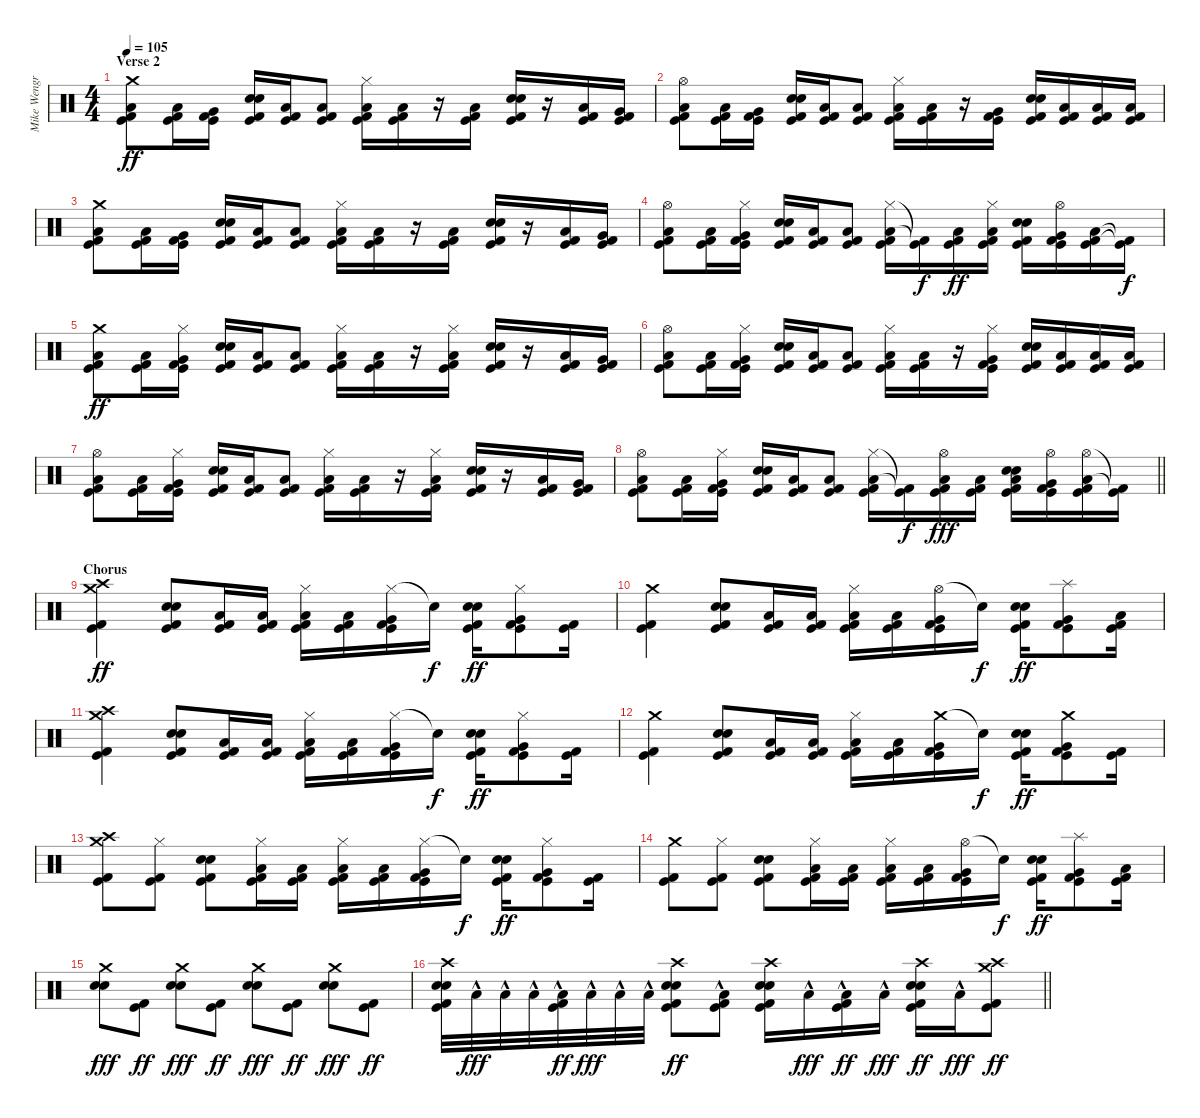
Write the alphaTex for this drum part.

\track ("Mike Wengren (Drums)" "Mike Wengr") {instrument percussion}
\staff {score}
\articulation defaults
\ts (4 4)
\section ("" "Verse 2")
\tempo 105
\clef neutral
\ks c
("Crash medium (hit)" "Low Floor Tom (hit)" "Kick (hit) 2" "Kick (hit)").8{dy ff} ("Low Floor Tom (hit)" "Kick (hit) 2" "Kick (hit)").16 ("Very Low Tom (hit)" "Kick (hit) 2" "Kick (hit)").16 ("Electric Snare (hit)" "Snare (hit) 2" "Kick (hit) 2" "Kick (hit)").16 ("Low Floor Tom (hit)" "Kick (hit) 2" "Kick (hit)").16 ("Low Floor Tom (hit)" "Kick (hit) 2" "Kick (hit)").8 ("Hi-Hat (closed)" "Low Floor Tom (hit)" "Kick (hit) 2" "Kick (hit)").16 ("Low Floor Tom (hit)" "Kick (hit) 2" "Kick (hit)").16 r.16 ("Low Floor Tom (hit)" "Kick (hit) 2" "Kick (hit)").16 ("Electric Snare (hit)" "Snare (hit) 2" "Kick (hit) 2" "Kick (hit)").16 r.16 ("Low Floor Tom (hit)" "Kick (hit) 2" "Kick (hit)").16 ("Very Low Tom (hit)" "Kick (hit) 2" "Kick (hit)").16 |
("Hi-Hat (open)" "Low Floor Tom (hit)" "Kick (hit) 2" "Kick (hit)").8 ("Low Floor Tom (hit)" "Kick (hit) 2" "Kick (hit)").16 ("Very Low Tom (hit)" "Kick (hit) 2" "Kick (hit)").16 ("Electric Snare (hit)" "Snare (hit) 2" "Kick (hit) 2" "Kick (hit)").16 ("Low Floor Tom (hit)" "Kick (hit) 2" "Kick (hit)").16 ("Low Floor Tom (hit)" "Kick (hit) 2" "Kick (hit)").8 ("Hi-Hat (closed)" "Low Floor Tom (hit)" "Kick (hit) 2" "Kick (hit)").16 ("Low Floor Tom (hit)" "Kick (hit) 2" "Kick (hit)").16 r.16 ("Very Low Tom (hit)" "Kick (hit) 2" "Kick (hit)").16 ("Electric Snare (hit)" "Snare (hit) 2" "Kick (hit) 2" "Kick (hit)").16 ("Low Floor Tom (hit)" "Kick (hit) 2" "Kick (hit)").16 ("Low Floor Tom (hit)" "Kick (hit) 2" "Kick (hit)").16 ("Low Floor Tom (hit)" "Kick (hit) 2" "Kick (hit)").16 |
("Crash medium (hit)" "Low Floor Tom (hit)" "Kick (hit) 2" "Kick (hit)").8 ("Low Floor Tom (hit)" "Kick (hit) 2" "Kick (hit)").16 ("Very Low Tom (hit)" "Kick (hit) 2" "Kick (hit)").16 ("Electric Snare (hit)" "Snare (hit) 2" "Kick (hit) 2" "Kick (hit)").16 ("Low Floor Tom (hit)" "Kick (hit) 2" "Kick (hit)").16 ("Low Floor Tom (hit)" "Kick (hit) 2" "Kick (hit)").8 ("Hi-Hat (closed)" "Low Floor Tom (hit)" "Kick (hit) 2" "Kick (hit)").16 ("Low Floor Tom (hit)" "Kick (hit) 2" "Kick (hit)").16 r.16 ("Low Floor Tom (hit)" "Kick (hit) 2" "Kick (hit)").16 ("Electric Snare (hit)" "Snare (hit) 2" "Kick (hit) 2" "Kick (hit)").16 r.16 ("Low Floor Tom (hit)" "Kick (hit) 2" "Kick (hit)").16 ("Very Low Tom (hit)" "Kick (hit) 2" "Kick (hit)").16 |
("Hi-Hat (open)" "Low Floor Tom (hit)" "Kick (hit) 2" "Kick (hit)").8 ("Low Floor Tom (hit)" "Kick (hit) 2" "Kick (hit)").16 ("Hi-Hat (closed)" "Very Low Tom (hit)" "Kick (hit) 2" "Kick (hit)").16 ("Electric Snare (hit)" "Snare (hit) 2" "Kick (hit) 2" "Kick (hit)").16 ("Low Floor Tom (hit)" "Kick (hit) 2" "Kick (hit)").16 ("Low Floor Tom (hit)" "Kick (hit) 2" "Kick (hit)").8 ("Hi-Hat (closed)" "Low Floor Tom (hit)" "Kick (hit) 2" "Kick (hit)").16 ("Kick (hit) 2"{t} "Kick (hit)"{t}).16{dy f} ("Low Floor Tom (hit)" "Kick (hit) 2" "Kick (hit)").16{dy ff} ("Hi-Hat (closed)" "Low Floor Tom (hit)" "Kick (hit) 2" "Kick (hit)").16 ("Electric Snare (hit)" "Snare (hit) 2" "Kick (hit) 2" "Kick (hit)").16 ("Hi-Hat (open)" "Very Low Tom (hit)" "Kick (hit) 2" "Kick (hit)").16 ("Low Floor Tom (hit)" "Kick (hit) 2" "Kick (hit)").16 ("Kick (hit) 2"{t} "Kick (hit)"{t}).16{dy f} |
("Crash medium (hit)" "Low Floor Tom (hit)" "Kick (hit) 2" "Kick (hit)").8{dy ff} ("Low Floor Tom (hit)" "Kick (hit) 2" "Kick (hit)").16 ("Hi-Hat (closed)" "Very Low Tom (hit)" "Kick (hit) 2" "Kick (hit)").16 ("Electric Snare (hit)" "Snare (hit) 2" "Kick (hit) 2" "Kick (hit)").16 ("Low Floor Tom (hit)" "Kick (hit) 2" "Kick (hit)").16 ("Low Floor Tom (hit)" "Kick (hit) 2" "Kick (hit)").8 ("Hi-Hat (closed)" "Low Floor Tom (hit)" "Kick (hit) 2" "Kick (hit)").16 ("Low Floor Tom (hit)" "Kick (hit) 2" "Kick (hit)").16 r.16 ("Hi-Hat (closed)" "Low Floor Tom (hit)" "Kick (hit) 2" "Kick (hit)").16 ("Electric Snare (hit)" "Snare (hit) 2" "Kick (hit) 2" "Kick (hit)").16 r.16 ("Low Floor Tom (hit)" "Kick (hit) 2" "Kick (hit)").16 ("Very Low Tom (hit)" "Kick (hit) 2" "Kick (hit)").16 |
("Hi-Hat (open)" "Low Floor Tom (hit)" "Kick (hit) 2" "Kick (hit)").8 ("Low Floor Tom (hit)" "Kick (hit) 2" "Kick (hit)").16 ("Hi-Hat (closed)" "Very Low Tom (hit)" "Kick (hit) 2" "Kick (hit)").16 ("Electric Snare (hit)" "Snare (hit) 2" "Kick (hit) 2" "Kick (hit)").16 ("Low Floor Tom (hit)" "Kick (hit) 2" "Kick (hit)").16 ("Low Floor Tom (hit)" "Kick (hit) 2" "Kick (hit)").8 ("Hi-Hat (closed)" "Low Floor Tom (hit)" "Kick (hit) 2" "Kick (hit)").16 ("Low Floor Tom (hit)" "Kick (hit) 2" "Kick (hit)").16 r.16 ("Hi-Hat (closed)" "Very Low Tom (hit)" "Kick (hit) 2" "Kick (hit)").16 ("Electric Snare (hit)" "Snare (hit) 2" "Kick (hit) 2" "Kick (hit)").16 ("Low Floor Tom (hit)" "Kick (hit) 2" "Kick (hit)").16 ("Low Floor Tom (hit)" "Kick (hit) 2" "Kick (hit)").16 ("Low Floor Tom (hit)" "Kick (hit) 2" "Kick (hit)").16 |
("Hi-Hat (open)" "Low Floor Tom (hit)" "Kick (hit) 2" "Kick (hit)").8 ("Low Floor Tom (hit)" "Kick (hit) 2" "Kick (hit)").16 ("Hi-Hat (closed)" "Very Low Tom (hit)" "Kick (hit) 2" "Kick (hit)").16 ("Electric Snare (hit)" "Snare (hit) 2" "Kick (hit) 2" "Kick (hit)").16 ("Low Floor Tom (hit)" "Kick (hit) 2" "Kick (hit)").16 ("Low Floor Tom (hit)" "Kick (hit) 2" "Kick (hit)").8 ("Hi-Hat (closed)" "Low Floor Tom (hit)" "Kick (hit) 2" "Kick (hit)").16 ("Low Floor Tom (hit)" "Kick (hit) 2" "Kick (hit)").16 r.16 ("Hi-Hat (closed)" "Low Floor Tom (hit)" "Kick (hit) 2" "Kick (hit)").16 ("Electric Snare (hit)" "Snare (hit) 2" "Kick (hit) 2" "Kick (hit)").16 r.16 ("Low Floor Tom (hit)" "Kick (hit) 2" "Kick (hit)").16 ("Very Low Tom (hit)" "Kick (hit) 2" "Kick (hit)").16 |
\barLineRight lightlight
("Hi-Hat (open)" "Low Floor Tom (hit)" "Kick (hit) 2" "Kick (hit)").8 ("Low Floor Tom (hit)" "Kick (hit) 2" "Kick (hit)").16 ("Hi-Hat (closed)" "Very Low Tom (hit)" "Kick (hit) 2" "Kick (hit)").16 ("Electric Snare (hit)" "Snare (hit) 2" "Kick (hit) 2" "Kick (hit)").16 ("Low Floor Tom (hit)" "Kick (hit) 2" "Kick (hit)").16 ("Low Floor Tom (hit)" "Kick (hit) 2" "Kick (hit)").8 ("Hi-Hat (closed)" "Low Floor Tom (hit)" "Kick (hit) 2" "Kick (hit)").16 ("Kick (hit) 2"{t} "Kick (hit)"{t}).16{dy f} ("Hi-Hat (open)" "Low Floor Tom (hit)" "Kick (hit) 2" "Kick (hit)").16{dy fff} ("Low Floor Tom (hit)" "Kick (hit) 2" "Kick (hit)").16 ("Low Tom (hit)" "Electric Snare (hit)" "Snare (hit) 2" "Kick (hit) 2" "Kick (hit)").16 ("Hi-Hat (open)" "Very Low Tom (hit)" "Kick (hit) 2" "Kick (hit)").16 ("Hi-Hat (open)" "Low Floor Tom (hit)" "Kick (hit) 2" "Kick (hit)").16 ("Kick (hit) 2"{t} "Kick (hit)"{t}).16 |
\section ("" "Chorus")
("Crash medium (hit)" "Crash high (hit)" "Kick (hit) 2" "Kick (hit)").4{dy ff} ("Electric Snare (hit)" "Snare (hit) 2" "Kick (hit) 2" "Kick (hit)").8 ("Low Floor Tom (hit)" "Kick (hit) 2" "Kick (hit)").16 ("Low Floor Tom (hit)" "Kick (hit) 2" "Kick (hit)").16 ("Hi-Hat (closed)" "Low Floor Tom (hit)" "Kick (hit) 2" "Kick (hit)").16 ("Low Floor Tom (hit)" "Kick (hit) 2" "Kick (hit)").16 ("Hi-Hat (closed)" "Very Low Tom (hit)" "Kick (hit) 2" "Kick (hit)").16 "Snare (hit)"{t}.16{dy f} ("Electric Snare (hit)" "Snare (hit) 2" "Kick (hit) 2" "Kick (hit)").16{dy ff} ("Hi-Hat (closed)" "Very Low Tom (hit)" "Kick (hit) 2" "Kick (hit)").8 ("Kick (hit) 2" "Kick (hit)").16 |
("Crash medium (hit)" "Kick (hit) 2" "Kick (hit)").4 ("Electric Snare (hit)" "Snare (hit) 2" "Kick (hit) 2" "Kick (hit)").8 ("Low Floor Tom (hit)" "Kick (hit) 2" "Kick (hit)").16 ("Low Floor Tom (hit)" "Kick (hit) 2" "Kick (hit)").16 ("Hi-Hat (closed)" "Low Floor Tom (hit)" "Kick (hit) 2" "Kick (hit)").16 ("Low Floor Tom (hit)" "Kick (hit) 2" "Kick (hit)").16 ("Hi-Hat (open)" "Very Low Tom (hit)" "Kick (hit) 2" "Kick (hit)").16 "Snare (hit)"{t}.16{dy f} ("Electric Snare (hit)" "Snare (hit) 2" "Kick (hit) 2" "Kick (hit)").16{dy ff} ("Splash (hit)" "Very Low Tom (hit)" "Kick (hit) 2" "Kick (hit)").8 ("Low Floor Tom (hit)" "Kick (hit) 2" "Kick (hit)").16 |
("Crash medium (hit)" "Crash high (hit)" "Kick (hit) 2" "Kick (hit)").4 ("Electric Snare (hit)" "Snare (hit) 2" "Kick (hit) 2" "Kick (hit)").8 ("Low Floor Tom (hit)" "Kick (hit) 2" "Kick (hit)").16 ("Low Floor Tom (hit)" "Kick (hit) 2" "Kick (hit)").16 ("Hi-Hat (closed)" "Low Floor Tom (hit)" "Kick (hit) 2" "Kick (hit)").16 ("Low Floor Tom (hit)" "Kick (hit) 2" "Kick (hit)").16 ("Hi-Hat (closed)" "Very Low Tom (hit)" "Kick (hit) 2" "Kick (hit)").16 "Snare (hit)"{t}.16{dy f} ("Electric Snare (hit)" "Snare (hit) 2" "Kick (hit) 2" "Kick (hit)").16{dy ff} ("Hi-Hat (closed)" "Very Low Tom (hit)" "Kick (hit) 2" "Kick (hit)").8 ("Kick (hit) 2" "Kick (hit)").16 |
("Crash medium (hit)" "Kick (hit) 2" "Kick (hit)").4 ("Electric Snare (hit)" "Snare (hit) 2" "Kick (hit) 2" "Kick (hit)").8 ("Low Floor Tom (hit)" "Kick (hit) 2" "Kick (hit)").16 ("Low Floor Tom (hit)" "Kick (hit) 2" "Kick (hit)").16 ("Hi-Hat (closed)" "Low Floor Tom (hit)" "Kick (hit) 2" "Kick (hit)").16 ("Low Floor Tom (hit)" "Kick (hit) 2" "Kick (hit)").16 ("Crash medium (hit)" "Very Low Tom (hit)" "Kick (hit) 2" "Kick (hit)").16 "Snare (hit)"{t}.16{dy f} ("Electric Snare (hit)" "Snare (hit) 2" "Kick (hit) 2" "Kick (hit)").16{dy ff} ("Crash medium (hit)" "Very Low Tom (hit)" "Kick (hit) 2" "Kick (hit)").8 ("Kick (hit) 2" "Kick (hit)").16 |
("Crash medium (hit)" "Crash high (hit)" "Kick (hit) 2" "Kick (hit)").8 ("Hi-Hat (closed)" "Kick (hit) 2" "Kick (hit)").8 ("Electric Snare (hit)" "Snare (hit) 2" "Kick (hit) 2" "Kick (hit)").8 ("Hi-Hat (closed)" "Low Floor Tom (hit)" "Kick (hit) 2" "Kick (hit)").16 ("Low Floor Tom (hit)" "Kick (hit) 2" "Kick (hit)").16 ("Hi-Hat (closed)" "Low Floor Tom (hit)" "Kick (hit) 2" "Kick (hit)").16 ("Low Floor Tom (hit)" "Kick (hit) 2" "Kick (hit)").16 ("Hi-Hat (closed)" "Very Low Tom (hit)" "Kick (hit) 2" "Kick (hit)").16 "Snare (hit)"{t}.16{dy f} ("Electric Snare (hit)" "Snare (hit) 2" "Kick (hit) 2" "Kick (hit)").16{dy ff} ("Hi-Hat (closed)" "Very Low Tom (hit)" "Kick (hit) 2" "Kick (hit)").8 ("Kick (hit) 2" "Kick (hit)").16 |
("Crash medium (hit)" "Kick (hit) 2" "Kick (hit)").8 ("Hi-Hat (closed)" "Kick (hit) 2" "Kick (hit)").8 ("Electric Snare (hit)" "Snare (hit) 2" "Kick (hit) 2" "Kick (hit)").8 ("Hi-Hat (closed)" "Low Floor Tom (hit)" "Kick (hit) 2" "Kick (hit)").16 ("Low Floor Tom (hit)" "Kick (hit) 2" "Kick (hit)").16 ("Hi-Hat (closed)" "Low Floor Tom (hit)" "Kick (hit) 2" "Kick (hit)").16 ("Low Floor Tom (hit)" "Kick (hit) 2" "Kick (hit)").16 ("Hi-Hat (open)" "Very Low Tom (hit)" "Kick (hit) 2" "Kick (hit)").16 "Snare (hit)"{t}.16{dy f} ("Electric Snare (hit)" "Snare (hit) 2" "Kick (hit) 2" "Kick (hit)").16{dy ff} ("Splash (hit)" "Very Low Tom (hit)" "Kick (hit) 2" "Kick (hit)").8 ("Low Floor Tom (hit)" "Kick (hit) 2" "Kick (hit)").16 |
("Crash medium (hit)" "Electric Snare (hit)" "Snare (hit) 2").8{dy fff} ("Kick (hit) 2" "Kick (hit)").8{dy ff} ("Crash medium (hit)" "Electric Snare (hit)" "Snare (hit) 2").8{dy fff} ("Kick (hit) 2" "Kick (hit)").8{dy ff} ("Crash medium (hit)" "Electric Snare (hit)" "Snare (hit) 2").8{dy fff} ("Kick (hit) 2" "Kick (hit)").8{dy ff} ("Crash medium (hit)" "Electric Snare (hit)" "Snare (hit) 2").8{dy fff} ("Kick (hit) 2" "Kick (hit)").8{dy ff} |
\barLineRight lightlight
("Crash high (hit)" "Electric Snare (hit)" "Snare (hit) 2" "Kick (hit) 2" "Kick (hit)").32 "Low Floor Tom (hit)"{hac}.32{dy fff} "Low Floor Tom (hit)"{hac}.32 "Low Floor Tom (hit)"{hac}.32 ("Low Floor Tom (hit)"{hac} "Kick (hit) 2" "Kick (hit)").32{dy ff} "Low Floor Tom (hit)"{hac}.32{dy fff} "Low Floor Tom (hit)"{hac}.32 "Low Floor Tom (hit)"{hac}.32 ("Crash high (hit)" "Electric Snare (hit)" "Snare (hit) 2" "Kick (hit) 2" "Kick (hit)").8{dy ff} ("Low Floor Tom (hit)"{hac} "Kick (hit) 2" "Kick (hit)").8 ("Crash high (hit)" "Electric Snare (hit)" "Snare (hit) 2" "Kick (hit) 2" "Kick (hit)").16 "Low Floor Tom (hit)"{hac}.16{dy fff} ("Low Floor Tom (hit)"{hac} "Kick (hit) 2" "Kick (hit)").16{dy ff} "Low Floor Tom (hit)"{hac}.16{dy fff} ("Crash high (hit)" "Electric Snare (hit)" "Snare (hit) 2" "Kick (hit) 2" "Kick (hit)").16{dy ff} "Low Floor Tom (hit)"{hac}.16{dy fff} ("Crash medium (hit)" "Crash high (hit)" "Kick (hit) 2" "Kick (hit)").8{dy ff}
